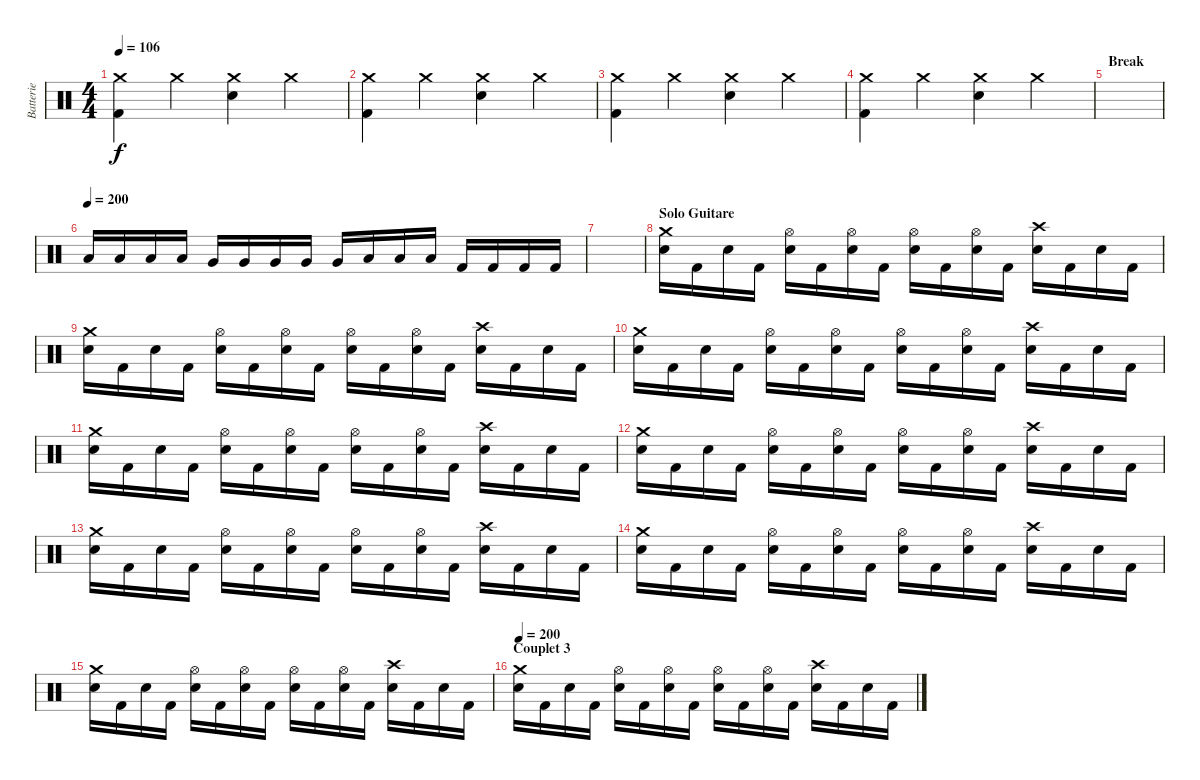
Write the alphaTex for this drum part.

\track ("Batterie" "Batterie") {instrument percussion}
\staff {score}
\articulation defaults
\ts (4 4)
\tempo 106
\clef neutral
\ks c
("Crash medium (hit)" "Kick (hit) 2").4{dy f} "Crash medium (hit)".4 ("Crash medium (hit)" "Snare (hit) 2").4 "Crash medium (hit)".4 |
("Crash medium (hit)" "Kick (hit) 2").4 "Crash medium (hit)".4 ("Crash medium (hit)" "Snare (hit) 2").4 "Crash medium (hit)".4 |
("Crash medium (hit)" "Kick (hit) 2").4 "Crash medium (hit)".4 ("Crash medium (hit)" "Snare (hit) 2").4 "Crash medium (hit)".4 |
("Crash medium (hit)" "Kick (hit) 2").4 "Crash medium (hit)".4 ("Crash medium (hit)" "Snare (hit) 2").4 "Crash medium (hit)".4 |
\section ("" "Break")
|
\tempo (200)
"Low Tom (hit)".16 "Low Tom (hit)".16 "Low Tom (hit)".16 "Low Tom (hit)".16 "Very Low Tom (hit)".16 "Very Low Tom (hit)".16 "Very Low Tom (hit)".16 "Very Low Tom (hit)".16 "Very Low Tom (hit)".16 "Low Floor Tom (hit)".16 "Low Floor Tom (hit)".16 "Low Floor Tom (hit)".16 "Kick (hit) 2".16 "Kick (hit) 2".16 "Kick (hit) 2".16 "Kick (hit) 2".16 |
|
\section ("" "Solo Guitare")
("Snare (hit) 2" "Crash medium (hit)").16 "Kick (hit) 2".16 "Snare (hit) 2".16 "Kick (hit) 2".16 ("Snare (hit) 2" "Hi-Hat (open)").16 "Kick (hit) 2".16 ("Snare (hit) 2" "Hi-Hat (open)").16 "Kick (hit) 2".16 ("Snare (hit) 2" "Hi-Hat (open)").16 "Kick (hit) 2".16 ("Snare (hit) 2" "Hi-Hat (open)").16 "Kick (hit) 2".16 ("Snare (hit) 2" "Crash high (hit)").16 "Kick (hit) 2".16 "Snare (hit) 2".16 "Kick (hit) 2".16 |
("Snare (hit) 2" "Crash medium (hit)").16 "Kick (hit) 2".16 "Snare (hit) 2".16 "Kick (hit) 2".16 ("Snare (hit) 2" "Hi-Hat (open)").16 "Kick (hit) 2".16 ("Snare (hit) 2" "Hi-Hat (open)").16 "Kick (hit) 2".16 ("Snare (hit) 2" "Hi-Hat (open)").16 "Kick (hit) 2".16 ("Snare (hit) 2" "Hi-Hat (open)").16 "Kick (hit) 2".16 ("Snare (hit) 2" "Crash high (hit)").16 "Kick (hit) 2".16 "Snare (hit) 2".16 "Kick (hit) 2".16 |
("Snare (hit) 2" "Crash medium (hit)").16 "Kick (hit) 2".16 "Snare (hit) 2".16 "Kick (hit) 2".16 ("Snare (hit) 2" "Hi-Hat (open)").16 "Kick (hit) 2".16 ("Snare (hit) 2" "Hi-Hat (open)").16 "Kick (hit) 2".16 ("Snare (hit) 2" "Hi-Hat (open)").16 "Kick (hit) 2".16 ("Snare (hit) 2" "Hi-Hat (open)").16 "Kick (hit) 2".16 ("Snare (hit) 2" "Crash high (hit)").16 "Kick (hit) 2".16 "Snare (hit) 2".16 "Kick (hit) 2".16 |
("Snare (hit) 2" "Crash medium (hit)").16 "Kick (hit) 2".16 "Snare (hit) 2".16 "Kick (hit) 2".16 ("Snare (hit) 2" "Hi-Hat (open)").16 "Kick (hit) 2".16 ("Snare (hit) 2" "Hi-Hat (open)").16 "Kick (hit) 2".16 ("Snare (hit) 2" "Hi-Hat (open)").16 "Kick (hit) 2".16 ("Snare (hit) 2" "Hi-Hat (open)").16 "Kick (hit) 2".16 ("Snare (hit) 2" "Crash high (hit)").16 "Kick (hit) 2".16 "Snare (hit) 2".16 "Kick (hit) 2".16 |
("Snare (hit) 2" "Crash medium (hit)").16 "Kick (hit) 2".16 "Snare (hit) 2".16 "Kick (hit) 2".16 ("Snare (hit) 2" "Hi-Hat (open)").16 "Kick (hit) 2".16 ("Snare (hit) 2" "Hi-Hat (open)").16 "Kick (hit) 2".16 ("Snare (hit) 2" "Hi-Hat (open)").16 "Kick (hit) 2".16 ("Snare (hit) 2" "Hi-Hat (open)").16 "Kick (hit) 2".16 ("Snare (hit) 2" "Crash high (hit)").16 "Kick (hit) 2".16 "Snare (hit) 2".16 "Kick (hit) 2".16 |
("Snare (hit) 2" "Crash medium (hit)").16 "Kick (hit) 2".16 "Snare (hit) 2".16 "Kick (hit) 2".16 ("Snare (hit) 2" "Hi-Hat (open)").16 "Kick (hit) 2".16 ("Snare (hit) 2" "Hi-Hat (open)").16 "Kick (hit) 2".16 ("Snare (hit) 2" "Hi-Hat (open)").16 "Kick (hit) 2".16 ("Snare (hit) 2" "Hi-Hat (open)").16 "Kick (hit) 2".16 ("Snare (hit) 2" "Crash high (hit)").16 "Kick (hit) 2".16 "Snare (hit) 2".16 "Kick (hit) 2".16 |
("Snare (hit) 2" "Crash medium (hit)").16 "Kick (hit) 2".16 "Snare (hit) 2".16 "Kick (hit) 2".16 ("Snare (hit) 2" "Hi-Hat (open)").16 "Kick (hit) 2".16 ("Snare (hit) 2" "Hi-Hat (open)").16 "Kick (hit) 2".16 ("Snare (hit) 2" "Hi-Hat (open)").16 "Kick (hit) 2".16 ("Snare (hit) 2" "Hi-Hat (open)").16 "Kick (hit) 2".16 ("Snare (hit) 2" "Crash high (hit)").16 "Kick (hit) 2".16 "Snare (hit) 2".16 "Kick (hit) 2".16 |
("Snare (hit) 2" "Crash medium (hit)").16 "Kick (hit) 2".16 "Snare (hit) 2".16 "Kick (hit) 2".16 ("Snare (hit) 2" "Hi-Hat (open)").16 "Kick (hit) 2".16 ("Snare (hit) 2" "Hi-Hat (open)").16 "Kick (hit) 2".16 ("Snare (hit) 2" "Hi-Hat (open)").16 "Kick (hit) 2".16 ("Snare (hit) 2" "Hi-Hat (open)").16 "Kick (hit) 2".16 ("Snare (hit) 2" "Crash high (hit)").16 "Kick (hit) 2".16 "Snare (hit) 2".16 "Kick (hit) 2".16 |
\section ("" "Couplet 3")
\tempo 200
("Snare (hit) 2" "Crash medium (hit)").16 "Kick (hit) 2".16 "Snare (hit) 2".16 "Kick (hit) 2".16 ("Snare (hit) 2" "Hi-Hat (open)").16 "Kick (hit) 2".16 ("Snare (hit) 2" "Hi-Hat (open)").16 "Kick (hit) 2".16 ("Snare (hit) 2" "Hi-Hat (open)").16 "Kick (hit) 2".16 ("Snare (hit) 2" "Hi-Hat (open)").16 "Kick (hit) 2".16 ("Snare (hit) 2" "Crash high (hit)").16 "Kick (hit) 2".16 "Snare (hit) 2".16 "Kick (hit) 2".16
